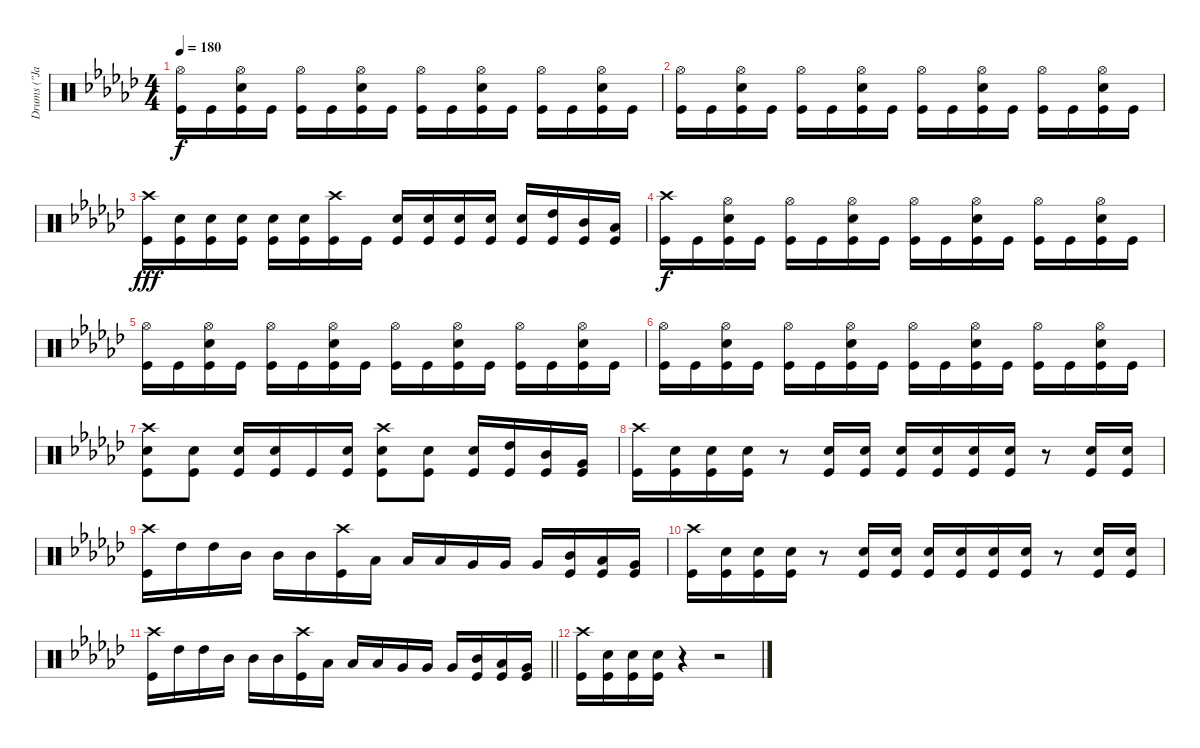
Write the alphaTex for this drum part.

\track ("Drums (\"Jane\")" "Drums (\"Ja") {instrument percussion}
\staff {score}
\articulation defaults
\ts (4 4)
\tempo 180
\clef neutral
\ks gb
("Hi-Hat (open)" "Kick (hit)").16{dy f} "Kick (hit)".16 ("Hi-Hat (open)" "Snare (hit) 2" "Kick (hit)").16 "Kick (hit)".16 ("Hi-Hat (open)" "Kick (hit)").16 "Kick (hit)".16 ("Hi-Hat (open)" "Snare (hit) 2" "Kick (hit)").16 "Kick (hit)".16 ("Hi-Hat (open)" "Kick (hit)").16 "Kick (hit)".16 ("Hi-Hat (open)" "Snare (hit) 2" "Kick (hit)").16 "Kick (hit)".16 ("Hi-Hat (open)" "Kick (hit)").16 "Kick (hit)".16 ("Hi-Hat (open)" "Snare (hit) 2" "Kick (hit)").16 "Kick (hit)".16 |
("Hi-Hat (open)" "Kick (hit)").16 "Kick (hit)".16 ("Hi-Hat (open)" "Snare (hit) 2" "Kick (hit)").16 "Kick (hit)".16 ("Hi-Hat (open)" "Kick (hit)").16 "Kick (hit)".16 ("Hi-Hat (open)" "Snare (hit) 2" "Kick (hit)").16 "Kick (hit)".16 ("Hi-Hat (open)" "Kick (hit)").16 "Kick (hit)".16 ("Hi-Hat (open)" "Snare (hit) 2" "Kick (hit)").16 "Kick (hit)".16 ("Hi-Hat (open)" "Kick (hit)").16 "Kick (hit)".16 ("Hi-Hat (open)" "Snare (hit) 2" "Kick (hit)").16 "Kick (hit)".16 |
("Crash high (hit)" "Kick (hit)").16{dy fff} ("Snare (hit) 2" "Kick (hit)").16 ("Snare (hit) 2" "Kick (hit)").16 ("Snare (hit) 2" "Kick (hit)").16 ("Snare (hit) 2" "Kick (hit)").16 ("Snare (hit) 2" "Kick (hit)").16 ("Crash high (hit)" "Kick (hit)").16 "Kick (hit)".16 ("Snare (hit) 2" "Kick (hit)").16 ("Snare (hit) 2" "Kick (hit)").16 ("Snare (hit) 2" "Kick (hit)").16 ("Snare (hit) 2" "Kick (hit)").16 ("Snare (hit) 2" "Kick (hit)").16 ("High Tom (hit)" "Kick (hit)").16 ("Mid Tom (hit)" "Kick (hit)").16 ("Low Tom (hit)" "Kick (hit)").16 |
("Crash high (hit)" "Kick (hit)").16{dy f} "Kick (hit)".16 ("Hi-Hat (open)" "Snare (hit) 2" "Kick (hit)").16 "Kick (hit)".16 ("Hi-Hat (open)" "Kick (hit)").16 "Kick (hit)".16 ("Hi-Hat (open)" "Snare (hit) 2" "Kick (hit)").16 "Kick (hit)".16 ("Hi-Hat (open)" "Kick (hit)").16 "Kick (hit)".16 ("Hi-Hat (open)" "Snare (hit) 2" "Kick (hit)").16 "Kick (hit)".16 ("Hi-Hat (open)" "Kick (hit)").16 "Kick (hit)".16 ("Hi-Hat (open)" "Snare (hit) 2" "Kick (hit)").16 "Kick (hit)".16 |
("Hi-Hat (open)" "Kick (hit)").16 "Kick (hit)".16 ("Hi-Hat (open)" "Snare (hit) 2" "Kick (hit)").16 "Kick (hit)".16 ("Hi-Hat (open)" "Kick (hit)").16 "Kick (hit)".16 ("Hi-Hat (open)" "Snare (hit) 2" "Kick (hit)").16 "Kick (hit)".16 ("Hi-Hat (open)" "Kick (hit)").16 "Kick (hit)".16 ("Hi-Hat (open)" "Snare (hit) 2" "Kick (hit)").16 "Kick (hit)".16 ("Hi-Hat (open)" "Kick (hit)").16 "Kick (hit)".16 ("Hi-Hat (open)" "Snare (hit) 2" "Kick (hit)").16 "Kick (hit)".16 |
("Hi-Hat (open)" "Kick (hit)").16 "Kick (hit)".16 ("Hi-Hat (open)" "Snare (hit) 2" "Kick (hit)").16 "Kick (hit)".16 ("Hi-Hat (open)" "Kick (hit)").16 "Kick (hit)".16 ("Hi-Hat (open)" "Snare (hit) 2" "Kick (hit)").16 "Kick (hit)".16 ("Hi-Hat (open)" "Kick (hit)").16 "Kick (hit)".16 ("Hi-Hat (open)" "Snare (hit) 2" "Kick (hit)").16 "Kick (hit)".16 ("Hi-Hat (open)" "Kick (hit)").16 "Kick (hit)".16 ("Hi-Hat (open)" "Snare (hit) 2" "Kick (hit)").16 "Kick (hit)".16 |
("Crash high (hit)" "Snare (hit) 2" "Kick (hit)").8 ("Snare (hit) 2" "Kick (hit)").8 ("Snare (hit) 2" "Kick (hit)").16 ("Snare (hit) 2" "Kick (hit)").16 "Kick (hit)".16 ("Snare (hit) 2" "Kick (hit)").16 ("Crash high (hit)" "Snare (hit) 2" "Kick (hit)").8 ("Snare (hit) 2" "Kick (hit)").8 ("Snare (hit) 2" "Kick (hit)").16 ("High Tom (hit)" "Kick (hit)").16 ("Mid Tom (hit)" "Kick (hit)").16 ("Very Low Tom (hit)" "Kick (hit)").16 |
("Crash high (hit)" "Kick (hit)").16 ("Snare (hit) 2" "Kick (hit)").16 ("Snare (hit) 2" "Kick (hit)").16 ("Snare (hit) 2" "Kick (hit)").16 r.8 ("Snare (hit) 2" "Kick (hit)").16 ("Snare (hit) 2" "Kick (hit)").16 ("Snare (hit) 2" "Kick (hit)").16 ("Snare (hit) 2" "Kick (hit)").16 ("Snare (hit) 2" "Kick (hit)").16 ("Snare (hit) 2" "Kick (hit)").16 r.8 ("Snare (hit) 2" "Kick (hit)").16 ("Snare (hit) 2" "Kick (hit)").16 |
("Crash high (hit)" "Kick (hit)").16 "High Tom (hit)".16 "High Tom (hit)".16 "Mid Tom (hit)".16 "Mid Tom (hit)".16 "Mid Tom (hit)".16 ("Crash high (hit)" "Kick (hit)").16 "Low Tom (hit)".16 "Low Tom (hit)".16 "Low Tom (hit)".16 "Very Low Tom (hit)".16 "Very Low Tom (hit)".16 "Very Low Tom (hit)".16 ("Mid Tom (hit)" "Kick (hit)").16 ("Low Tom (hit)" "Kick (hit)").16 ("Very Low Tom (hit)" "Kick (hit)").16 |
("Crash high (hit)" "Kick (hit)").16 ("Snare (hit) 2" "Kick (hit)").16 ("Snare (hit) 2" "Kick (hit)").16 ("Snare (hit) 2" "Kick (hit)").16 r.8 ("Snare (hit) 2" "Kick (hit)").16 ("Snare (hit) 2" "Kick (hit)").16 ("Snare (hit) 2" "Kick (hit)").16 ("Snare (hit) 2" "Kick (hit)").16 ("Snare (hit) 2" "Kick (hit)").16 ("Snare (hit) 2" "Kick (hit)").16 r.8 ("Snare (hit) 2" "Kick (hit)").16 ("Snare (hit) 2" "Kick (hit)").16 |
\barLineRight lightlight
("Crash high (hit)" "Kick (hit)").16 "High Tom (hit)".16 "High Tom (hit)".16 "Mid Tom (hit)".16 "Mid Tom (hit)".16 "Mid Tom (hit)".16 ("Crash high (hit)" "Kick (hit)").16 "Low Tom (hit)".16 "Low Tom (hit)".16 "Low Tom (hit)".16 "Very Low Tom (hit)".16 "Very Low Tom (hit)".16 "Very Low Tom (hit)".16 ("Mid Tom (hit)" "Kick (hit)").16 ("Low Tom (hit)" "Kick (hit)").16 ("Very Low Tom (hit)" "Kick (hit)").16 |
("Crash high (hit)" "Kick (hit)").16 ("Snare (hit) 2" "Kick (hit)").16 ("Snare (hit) 2" "Kick (hit)").16 ("Snare (hit) 2" "Kick (hit)").16 r.4 r.2
